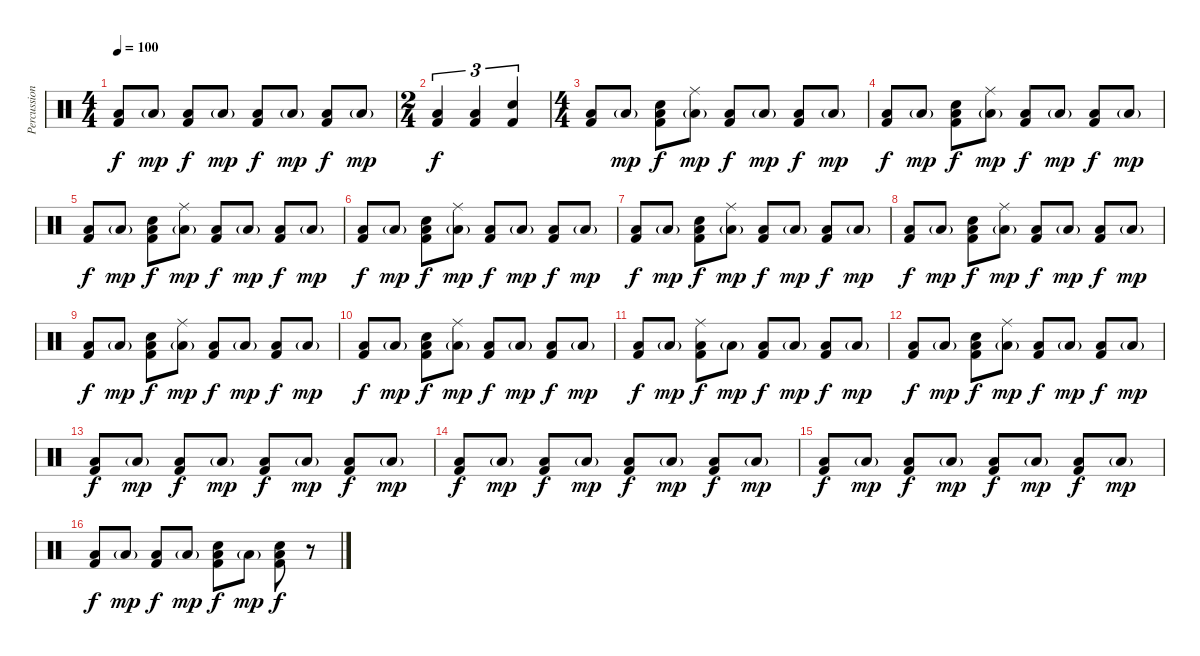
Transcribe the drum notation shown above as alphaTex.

\track ("Percussion" "Percussion") {instrument percussion}
\staff {score}
\articulation defaults
\ts (4 4)
\tempo 100
\clef neutral
\ks c
("Low Floor Tom (hit)" "Kick (hit) 2").8{dy f} "Low Floor Tom (hit)"{g}.8{dy mp} ("Low Floor Tom (hit)" "Kick (hit) 2").8{dy f} "Low Floor Tom (hit)"{g}.8{dy mp} ("Low Floor Tom (hit)" "Kick (hit) 2").8{dy f} "Low Floor Tom (hit)"{g}.8{dy mp} ("Low Floor Tom (hit)" "Kick (hit) 2").8{dy f} "Low Floor Tom (hit)"{g}.8{dy mp} |
\ts (2 4)
("Low Floor Tom (hit)" "Kick (hit) 2").4{tu (3 2) dy f} ("Low Floor Tom (hit)" "Kick (hit) 2").4{tu (3 2)} ("Snare (hit) 2" "Kick (hit) 2").4{tu (3 2)} |
\ts (4 4)
("Low Floor Tom (hit)" "Kick (hit) 2").8 "Low Floor Tom (hit)"{g}.8{dy mp} ("Snare (hit) 2" "Low Floor Tom (hit)" "Kick (hit) 2").8{dy f} ("Ride (middle)" "Low Floor Tom (hit)"{g}).8{dy mp} ("Low Floor Tom (hit)" "Kick (hit) 2").8{dy f} "Low Floor Tom (hit)"{g}.8{dy mp} ("Low Floor Tom (hit)" "Kick (hit) 2").8{dy f} "Low Floor Tom (hit)"{g}.8{dy mp} |
("Low Floor Tom (hit)" "Kick (hit) 2").8{dy f} "Low Floor Tom (hit)"{g}.8{dy mp} ("Snare (hit) 2" "Low Floor Tom (hit)" "Kick (hit) 2").8{dy f} ("Ride (middle)" "Low Floor Tom (hit)"{g}).8{dy mp} ("Low Floor Tom (hit)" "Kick (hit) 2").8{dy f} "Low Floor Tom (hit)"{g}.8{dy mp} ("Low Floor Tom (hit)" "Kick (hit) 2").8{dy f} "Low Floor Tom (hit)"{g}.8{dy mp} |
("Low Floor Tom (hit)" "Kick (hit) 2").8{dy f} "Low Floor Tom (hit)"{g}.8{dy mp} ("Snare (hit) 2" "Low Floor Tom (hit)" "Kick (hit) 2").8{dy f} ("Ride (middle)" "Low Floor Tom (hit)"{g}).8{dy mp} ("Low Floor Tom (hit)" "Kick (hit) 2").8{dy f} "Low Floor Tom (hit)"{g}.8{dy mp} ("Low Floor Tom (hit)" "Kick (hit) 2").8{dy f} "Low Floor Tom (hit)"{g}.8{dy mp} |
("Low Floor Tom (hit)" "Kick (hit) 2").8{dy f} "Low Floor Tom (hit)"{g}.8{dy mp} ("Snare (hit) 2" "Low Floor Tom (hit)" "Kick (hit) 2").8{dy f} ("Ride (middle)" "Low Floor Tom (hit)"{g}).8{dy mp} ("Low Floor Tom (hit)" "Kick (hit) 2").8{dy f} "Low Floor Tom (hit)"{g}.8{dy mp} ("Low Floor Tom (hit)" "Kick (hit) 2").8{dy f} "Low Floor Tom (hit)"{g}.8{dy mp} |
("Low Floor Tom (hit)" "Kick (hit) 2").8{dy f} "Low Floor Tom (hit)"{g}.8{dy mp} ("Snare (hit) 2" "Low Floor Tom (hit)" "Kick (hit) 2").8{dy f} ("Ride (middle)" "Low Floor Tom (hit)"{g}).8{dy mp} ("Low Floor Tom (hit)" "Kick (hit) 2").8{dy f} "Low Floor Tom (hit)"{g}.8{dy mp} ("Low Floor Tom (hit)" "Kick (hit) 2").8{dy f} "Low Floor Tom (hit)"{g}.8{dy mp} |
("Low Floor Tom (hit)" "Kick (hit) 2").8{dy f} "Low Floor Tom (hit)"{g}.8{dy mp} ("Snare (hit) 2" "Low Floor Tom (hit)" "Kick (hit) 2").8{dy f} ("Ride (middle)" "Low Floor Tom (hit)"{g}).8{dy mp} ("Low Floor Tom (hit)" "Kick (hit) 2").8{dy f} "Low Floor Tom (hit)"{g}.8{dy mp} ("Low Floor Tom (hit)" "Kick (hit) 2").8{dy f} "Low Floor Tom (hit)"{g}.8{dy mp} |
("Low Floor Tom (hit)" "Kick (hit) 2").8{dy f} "Low Floor Tom (hit)"{g}.8{dy mp} ("Snare (hit) 2" "Low Floor Tom (hit)" "Kick (hit) 2").8{dy f} ("Ride (middle)" "Low Floor Tom (hit)"{g}).8{dy mp} ("Low Floor Tom (hit)" "Kick (hit) 2").8{dy f} "Low Floor Tom (hit)"{g}.8{dy mp} ("Low Floor Tom (hit)" "Kick (hit) 2").8{dy f} "Low Floor Tom (hit)"{g}.8{dy mp} |
("Low Floor Tom (hit)" "Kick (hit) 2").8{dy f} "Low Floor Tom (hit)"{g}.8{dy mp} ("Snare (hit) 2" "Low Floor Tom (hit)" "Kick (hit) 2").8{dy f} ("Ride (middle)" "Low Floor Tom (hit)"{g}).8{dy mp} ("Low Floor Tom (hit)" "Kick (hit) 2").8{dy f} "Low Floor Tom (hit)"{g}.8{dy mp} ("Low Floor Tom (hit)" "Kick (hit) 2").8{dy f} "Low Floor Tom (hit)"{g}.8{dy mp} |
("Low Floor Tom (hit)" "Kick (hit) 2").8{dy f} "Low Floor Tom (hit)"{g}.8{dy mp} ("Ride (middle)" "Low Floor Tom (hit)" "Kick (hit) 2").8{dy f} "Low Floor Tom (hit)"{g}.8{dy mp} ("Low Floor Tom (hit)" "Kick (hit) 2").8{dy f} "Low Floor Tom (hit)"{g}.8{dy mp} ("Low Floor Tom (hit)" "Kick (hit) 2").8{dy f} "Low Floor Tom (hit)"{g}.8{dy mp} |
("Low Floor Tom (hit)" "Kick (hit) 2").8{dy f} "Low Floor Tom (hit)"{g}.8{dy mp} ("Snare (hit) 2" "Low Floor Tom (hit)" "Kick (hit) 2").8{dy f} ("Ride (middle)" "Low Floor Tom (hit)"{g}).8{dy mp} ("Low Floor Tom (hit)" "Kick (hit) 2").8{dy f} "Low Floor Tom (hit)"{g}.8{dy mp} ("Low Floor Tom (hit)" "Kick (hit) 2").8{dy f} "Low Floor Tom (hit)"{g}.8{dy mp} |
("Low Floor Tom (hit)" "Kick (hit) 2").8{dy f} "Low Floor Tom (hit)"{g}.8{dy mp} ("Low Floor Tom (hit)" "Kick (hit) 2").8{dy f} "Low Floor Tom (hit)"{g}.8{dy mp} ("Low Floor Tom (hit)" "Kick (hit) 2").8{dy f} "Low Floor Tom (hit)"{g}.8{dy mp} ("Low Floor Tom (hit)" "Kick (hit) 2").8{dy f} "Low Floor Tom (hit)"{g}.8{dy mp} |
("Low Floor Tom (hit)" "Kick (hit) 2").8{dy f} "Low Floor Tom (hit)"{g}.8{dy mp} ("Low Floor Tom (hit)" "Kick (hit) 2").8{dy f} "Low Floor Tom (hit)"{g}.8{dy mp} ("Low Floor Tom (hit)" "Kick (hit) 2").8{dy f} "Low Floor Tom (hit)"{g}.8{dy mp} ("Low Floor Tom (hit)" "Kick (hit) 2").8{dy f} "Low Floor Tom (hit)"{g}.8{dy mp} |
("Low Floor Tom (hit)" "Kick (hit) 2").8{dy f} "Low Floor Tom (hit)"{g}.8{dy mp} ("Low Floor Tom (hit)" "Kick (hit) 2").8{dy f} "Low Floor Tom (hit)"{g}.8{dy mp} ("Low Floor Tom (hit)" "Kick (hit) 2").8{dy f} "Low Floor Tom (hit)"{g}.8{dy mp} ("Low Floor Tom (hit)" "Kick (hit) 2").8{dy f} "Low Floor Tom (hit)"{g}.8{dy mp} |
("Low Floor Tom (hit)" "Kick (hit) 2").8{dy f} "Low Floor Tom (hit)"{g}.8{dy mp} ("Low Floor Tom (hit)" "Kick (hit) 2").8{dy f} "Low Floor Tom (hit)"{g}.8{dy mp} ("Snare (hit) 2" "Low Floor Tom (hit)" "Kick (hit) 2").8{dy f} "Low Floor Tom (hit)"{g}.8{dy mp} ("Snare (hit) 2" "Low Floor Tom (hit)" "Kick (hit) 2").8{dy f} r.8
